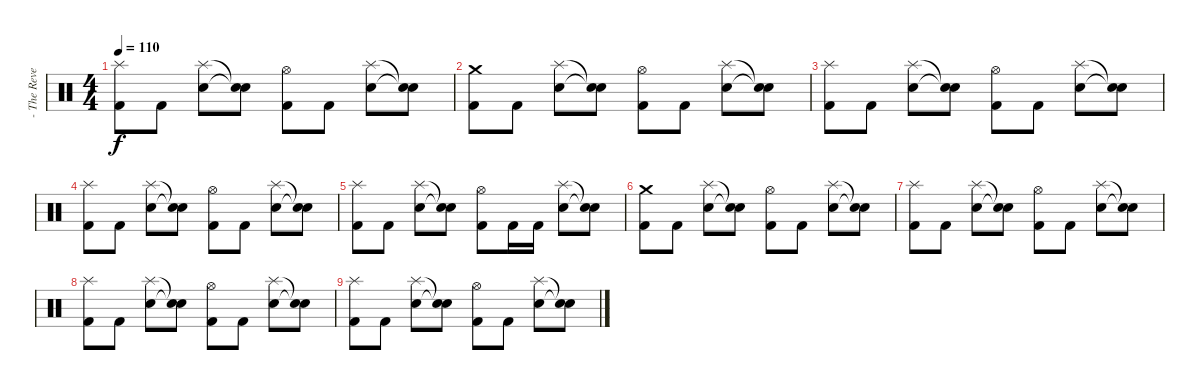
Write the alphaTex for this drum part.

\track ("- The Reverend - Drums" "- The Reve") {instrument percussion}
\staff {score}
\articulation defaults
\ts (4 4)
\tempo 110
\clef neutral
\ks c
("Splash (hit)" "Kick (hit) 2").8{dy f} "Kick (hit) 2".8 ("Splash (hit)" "Snare (hit) 2").8 ("Snare (hit)"{t} "Snare (hit)"{t}).8 ("Hi-Hat (open)" "Kick (hit) 2").8 "Kick (hit) 2".8 ("Splash (hit)" "Snare (hit) 2").8 ("Snare (hit)"{t} "Snare (hit)"{t}).8 |
("Crash medium (hit)" "Kick (hit) 2").8 "Kick (hit) 2".8 ("Splash (hit)" "Snare (hit) 2").8 ("Snare (hit)"{t} "Snare (hit)"{t}).8 ("Hi-Hat (open)" "Kick (hit) 2").8 "Kick (hit) 2".8 ("Splash (hit)" "Snare (hit) 2").8 ("Snare (hit)"{t} "Snare (hit)"{t}).8 |
("Splash (hit)" "Kick (hit) 2").8 "Kick (hit) 2".8 ("Splash (hit)" "Snare (hit) 2").8 ("Snare (hit)"{t} "Snare (hit)"{t}).8 ("Hi-Hat (open)" "Kick (hit) 2").8 "Kick (hit) 2".8 ("Splash (hit)" "Snare (hit) 2").8 ("Snare (hit)"{t} "Snare (hit)"{t}).8 |
("Splash (hit)" "Kick (hit) 2").8 "Kick (hit) 2".8 ("Splash (hit)" "Snare (hit) 2").8 ("Snare (hit)"{t} "Snare (hit)"{t}).8 ("Hi-Hat (open)" "Kick (hit) 2").8 "Kick (hit) 2".8 ("Splash (hit)" "Snare (hit) 2").8 ("Snare (hit)"{t} "Snare (hit)"{t}).8 |
("Splash (hit)" "Kick (hit) 2").8 "Kick (hit) 2".8 ("Splash (hit)" "Snare (hit) 2").8 ("Snare (hit)"{t} "Snare (hit)"{t}).8 ("Hi-Hat (open)" "Kick (hit) 2").8 "Kick (hit) 2".16 "Kick (hit) 2".16 ("Splash (hit)" "Snare (hit) 2").8 ("Snare (hit)"{t} "Snare (hit)"{t}).8 |
("Crash medium (hit)" "Kick (hit) 2").8 "Kick (hit) 2".8 ("Splash (hit)" "Snare (hit) 2").8 ("Snare (hit)"{t} "Snare (hit)"{t}).8 ("Hi-Hat (open)" "Kick (hit) 2").8 "Kick (hit) 2".8 ("Splash (hit)" "Snare (hit) 2").8 ("Snare (hit)"{t} "Snare (hit)"{t}).8 |
("Splash (hit)" "Kick (hit) 2").8 "Kick (hit) 2".8 ("Splash (hit)" "Snare (hit) 2").8 ("Snare (hit)"{t} "Snare (hit)"{t}).8 ("Hi-Hat (open)" "Kick (hit) 2").8 "Kick (hit) 2".8 ("Splash (hit)" "Snare (hit) 2").8 ("Snare (hit)"{t} "Snare (hit)"{t}).8 |
("Splash (hit)" "Kick (hit) 2").8 "Kick (hit) 2".8 ("Splash (hit)" "Snare (hit) 2").8 ("Snare (hit)"{t} "Snare (hit)"{t}).8 ("Hi-Hat (open)" "Kick (hit) 2").8 "Kick (hit) 2".8 ("Splash (hit)" "Snare (hit) 2").8 ("Snare (hit)"{t} "Snare (hit)"{t}).8 |
("Splash (hit)" "Kick (hit) 2").8 "Kick (hit) 2".8 ("Splash (hit)" "Snare (hit) 2").8 ("Snare (hit)"{t} "Snare (hit)"{t}).8 ("Hi-Hat (open)" "Kick (hit) 2").8 "Kick (hit) 2".8 ("Splash (hit)" "Snare (hit) 2").8 ("Snare (hit)"{t} "Snare (hit)"{t}).8
